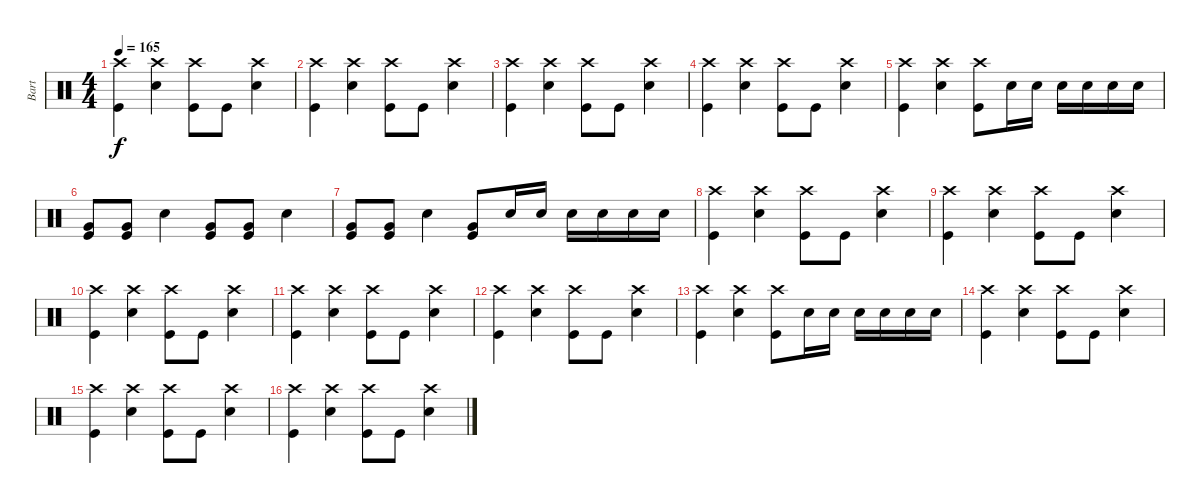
\track ("Bart" "Bart") {instrument percussion}
\staff {score}
\articulation defaults
\ts (4 4)
\tempo 165
\clef neutral
\ks c
("Kick (hit)" "Crash high (hit)").4{dy f} ("Electric Snare (hit)" "Crash high (hit)").4 ("Kick (hit)" "Crash high (hit)").8 "Kick (hit)".8 ("Electric Snare (hit)" "Crash high (hit)").4 |
("Kick (hit)" "Crash high (hit)").4 ("Electric Snare (hit)" "Crash high (hit)").4 ("Kick (hit)" "Crash high (hit)").8 "Kick (hit)".8 ("Electric Snare (hit)" "Crash high (hit)").4 |
("Kick (hit)" "Crash high (hit)").4 ("Electric Snare (hit)" "Crash high (hit)").4 ("Kick (hit)" "Crash high (hit)").8 "Kick (hit)".8 ("Electric Snare (hit)" "Crash high (hit)").4 |
("Kick (hit)" "Crash high (hit)").4 ("Electric Snare (hit)" "Crash high (hit)").4 ("Kick (hit)" "Crash high (hit)").8 "Kick (hit)".8 ("Electric Snare (hit)" "Crash high (hit)").4 |
("Kick (hit)" "Crash high (hit)").4 ("Electric Snare (hit)" "Crash high (hit)").4 ("Kick (hit)" "Crash high (hit)").8 "Electric Snare (hit)".16 "Electric Snare (hit)".16 "Electric Snare (hit)".16 "Electric Snare (hit)".16 "Electric Snare (hit)".16 "Electric Snare (hit)".16 |
("Kick (hit)" "Very Low Tom (hit)").8 ("Kick (hit)" "Very Low Tom (hit)").8 "Electric Snare (hit)".4 ("Kick (hit)" "Very Low Tom (hit)").8 ("Kick (hit)" "Very Low Tom (hit)").8 "Electric Snare (hit)".4 |
("Kick (hit)" "Very Low Tom (hit)").8 ("Kick (hit)" "Very Low Tom (hit)").8 "Electric Snare (hit)".4 ("Kick (hit)" "Very Low Tom (hit)").8 "Electric Snare (hit)".16 "Electric Snare (hit)".16 "Electric Snare (hit)".16 "Electric Snare (hit)".16 "Electric Snare (hit)".16 "Electric Snare (hit)".16 |
("Kick (hit)" "Crash high (hit)").4 ("Electric Snare (hit)" "Crash high (hit)").4 ("Kick (hit)" "Crash high (hit)").8 "Kick (hit)".8 ("Electric Snare (hit)" "Crash high (hit)").4 |
("Kick (hit)" "Crash high (hit)").4 ("Electric Snare (hit)" "Crash high (hit)").4 ("Kick (hit)" "Crash high (hit)").8 "Kick (hit)".8 ("Electric Snare (hit)" "Crash high (hit)").4 |
("Kick (hit)" "Crash high (hit)").4 ("Electric Snare (hit)" "Crash high (hit)").4 ("Kick (hit)" "Crash high (hit)").8 "Kick (hit)".8 ("Electric Snare (hit)" "Crash high (hit)").4 |
("Kick (hit)" "Crash high (hit)").4 ("Electric Snare (hit)" "Crash high (hit)").4 ("Kick (hit)" "Crash high (hit)").8 "Kick (hit)".8 ("Electric Snare (hit)" "Crash high (hit)").4 |
("Kick (hit)" "Crash high (hit)").4 ("Electric Snare (hit)" "Crash high (hit)").4 ("Kick (hit)" "Crash high (hit)").8 "Kick (hit)".8 ("Electric Snare (hit)" "Crash high (hit)").4 |
("Kick (hit)" "Crash high (hit)").4 ("Electric Snare (hit)" "Crash high (hit)").4 ("Kick (hit)" "Crash high (hit)").8 "Electric Snare (hit)".16 "Electric Snare (hit)".16 "Electric Snare (hit)".16 "Electric Snare (hit)".16 "Electric Snare (hit)".16 "Electric Snare (hit)".16 |
("Kick (hit)" "Crash high (hit)").4 ("Electric Snare (hit)" "Crash high (hit)").4 ("Kick (hit)" "Crash high (hit)").8 "Kick (hit)".8 ("Electric Snare (hit)" "Crash high (hit)").4 |
("Kick (hit)" "Crash high (hit)").4 ("Electric Snare (hit)" "Crash high (hit)").4 ("Kick (hit)" "Crash high (hit)").8 "Kick (hit)".8 ("Electric Snare (hit)" "Crash high (hit)").4 |
("Kick (hit)" "Crash high (hit)").4 ("Electric Snare (hit)" "Crash high (hit)").4 ("Kick (hit)" "Crash high (hit)").8 "Kick (hit)".8 ("Electric Snare (hit)" "Crash high (hit)").4
